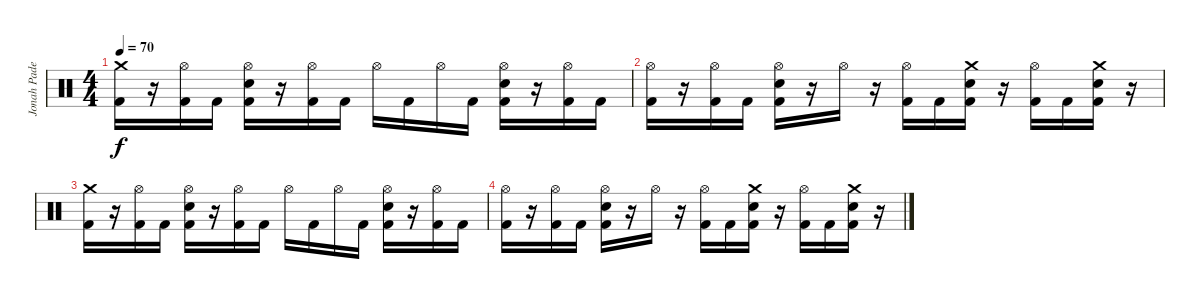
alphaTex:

\track ("Jonah Padella" "Jonah Pade") {instrument percussion}
\staff {score}
\articulation defaults
\ts (4 4)
\tempo 70
\clef neutral
\ks c
("Crash medium (hit)" "Kick (hit) 2").16{dy f} r.16 ("Hi-Hat (open)" "Kick (hit) 2").16 "Kick (hit) 2".16 ("Hi-Hat (open)" "Snare (hit) 2" "Kick (hit) 2").16 r.16 ("Hi-Hat (open)" "Kick (hit) 2").16 "Kick (hit) 2".16 "Hi-Hat (open)".16 "Kick (hit) 2".16 "Hi-Hat (open)".16 "Kick (hit) 2".16 ("Hi-Hat (open)" "Snare (hit) 2" "Kick (hit) 2").16 r.16 ("Hi-Hat (open)" "Kick (hit) 2").16 "Kick (hit) 2".16 |
("Hi-Hat (open)" "Kick (hit) 2").16 r.16 ("Hi-Hat (open)" "Kick (hit) 2").16 "Kick (hit) 2".16 ("Hi-Hat (open)" "Snare (hit) 2" "Kick (hit) 2").16 r.16 "Hi-Hat (open)".16 r.16 ("Hi-Hat (open)" "Kick (hit) 2").16 "Kick (hit) 2".16 ("Crash medium (hit)" "Snare (hit) 2" "Kick (hit) 2").16 r.16 ("Hi-Hat (open)" "Kick (hit) 2").16 "Kick (hit) 2".16 ("Crash medium (hit)" "Snare (hit) 2" "Kick (hit) 2").16 r.16 |
("Crash medium (hit)" "Kick (hit) 2").16 r.16 ("Hi-Hat (open)" "Kick (hit) 2").16 "Kick (hit) 2".16 ("Hi-Hat (open)" "Snare (hit) 2" "Kick (hit) 2").16 r.16 ("Hi-Hat (open)" "Kick (hit) 2").16 "Kick (hit) 2".16 "Hi-Hat (open)".16 "Kick (hit) 2".16 "Hi-Hat (open)".16 "Kick (hit) 2".16 ("Hi-Hat (open)" "Snare (hit) 2" "Kick (hit) 2").16 r.16 ("Hi-Hat (open)" "Kick (hit) 2").16 "Kick (hit) 2".16 |
("Hi-Hat (open)" "Kick (hit) 2").16 r.16 ("Hi-Hat (open)" "Kick (hit) 2").16 "Kick (hit) 2".16 ("Hi-Hat (open)" "Snare (hit) 2" "Kick (hit) 2").16 r.16 "Hi-Hat (open)".16 r.16 ("Hi-Hat (open)" "Kick (hit) 2").16 "Kick (hit) 2".16 ("Crash medium (hit)" "Snare (hit) 2" "Kick (hit) 2").16 r.16 ("Hi-Hat (open)" "Kick (hit) 2").16 "Kick (hit) 2".16 ("Crash medium (hit)" "Snare (hit) 2" "Kick (hit) 2").16 r.16
